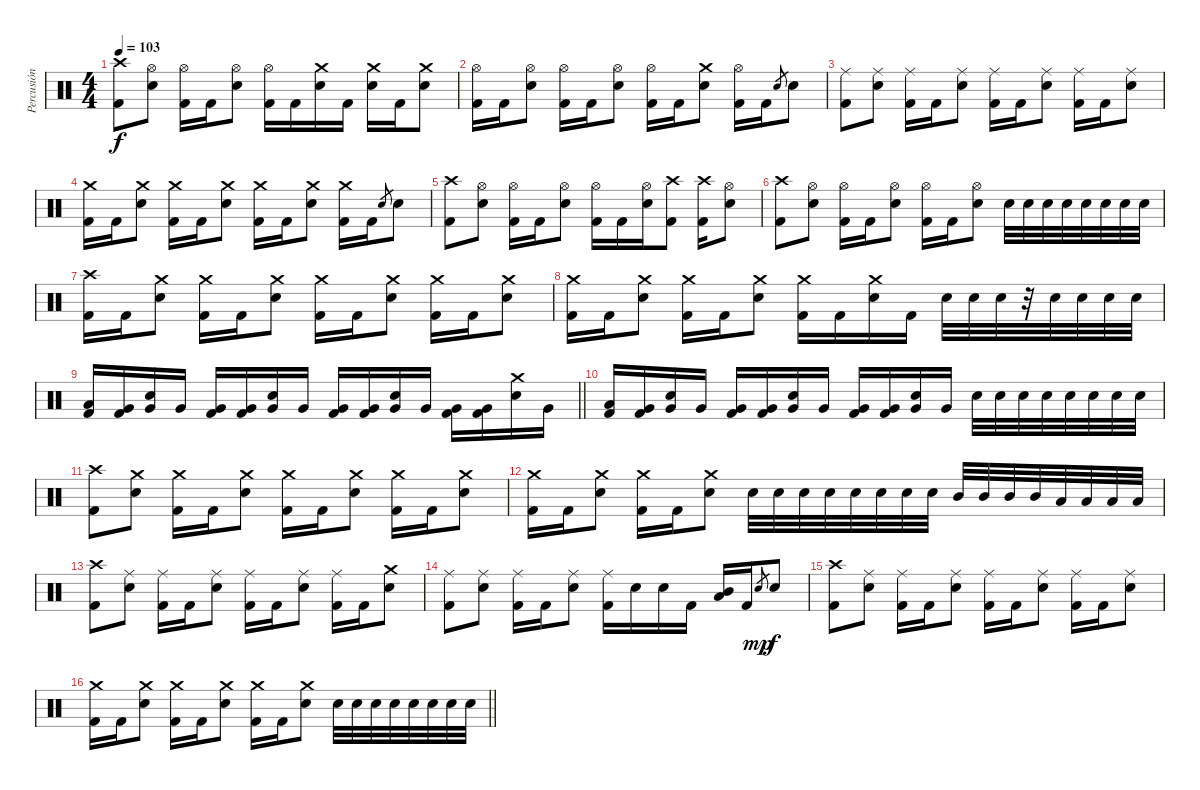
\track ("Percusión" "Percusión") {instrument percussion}
\staff {score}
\articulation defaults
\ts (4 4)
\tempo 103
\clef neutral
\ks c
("Crash high (hit)" "Kick (hit) 2").8{dy f} ("Hi-Hat (open)" "Snare (hit) 2").8 ("Hi-Hat (open)" "Kick (hit) 2").16 "Kick (hit) 2".16 ("Hi-Hat (open)" "Snare (hit) 2").8 ("Hi-Hat (open)" "Kick (hit) 2").16 "Kick (hit) 2".16 ("Crash medium (hit)" "Snare (hit) 2").16 "Kick (hit) 2".16 ("Crash medium (hit)" "Snare (hit) 2").16 "Kick (hit) 2".16 ("Crash medium (hit)" "Snare (hit) 2").8 |
("Hi-Hat (open)" "Kick (hit) 2").16 "Kick (hit) 2".16 ("Hi-Hat (open)" "Snare (hit) 2").8 ("Hi-Hat (open)" "Kick (hit) 2").16 "Kick (hit) 2".16 ("Hi-Hat (open)" "Snare (hit) 2").8 ("Hi-Hat (open)" "Kick (hit) 2").16 "Kick (hit) 2".16 ("Crash medium (hit)" "Snare (hit) 2").8 ("Hi-Hat (open)" "Kick (hit) 2").16 "Kick (hit) 2".16 "Snare (hit) 2".8{gr} "Snare (hit) 2".8 |
("Ride (middle)" "Kick (hit) 2").8 ("Ride (middle)" "Snare (hit) 2").8 ("Ride (middle)" "Kick (hit) 2").16 "Kick (hit) 2".16 ("Ride (middle)" "Snare (hit) 2").8 ("Ride (middle)" "Kick (hit) 2").16 "Kick (hit) 2".16 ("Ride (middle)" "Snare (hit) 2").8 ("Ride (middle)" "Kick (hit) 2").16 "Kick (hit) 2".16 ("Ride (middle)" "Snare (hit) 2").8 |
("Crash medium (hit)" "Kick (hit) 2").16 "Kick (hit) 2".16 ("Crash medium (hit)" "Snare (hit) 2").8 ("Crash medium (hit)" "Kick (hit) 2").16 "Kick (hit) 2".16 ("Crash medium (hit)" "Snare (hit) 2").8 ("Crash medium (hit)" "Kick (hit) 2").16 "Kick (hit) 2".16 ("Crash medium (hit)" "Snare (hit) 2").8 ("Crash medium (hit)" "Kick (hit) 2").16 "Kick (hit) 2".16 "Snare (hit) 2".8{gr} "Snare (hit) 2".8 |
("Crash high (hit)" "Kick (hit) 2").8 ("Hi-Hat (open)" "Snare (hit) 2").8 ("Hi-Hat (open)" "Kick (hit) 2").16 "Kick (hit) 2".16 ("Hi-Hat (open)" "Snare (hit) 2").8 ("Hi-Hat (open)" "Kick (hit) 2").16 "Kick (hit) 2".16 ("Hi-Hat (open)" "Snare (hit) 2").16 ("Crash high (hit)" "Kick (hit) 2").8 ("Crash high (hit)" "Kick (hit) 2").16 ("Hi-Hat (open)" "Snare (hit) 2").8 |
("Crash high (hit)" "Kick (hit) 2").8 ("Hi-Hat (open)" "Snare (hit) 2").8 ("Hi-Hat (open)" "Kick (hit) 2").16 "Kick (hit) 2".16 ("Hi-Hat (open)" "Snare (hit) 2").8 ("Hi-Hat (open)" "Kick (hit) 2").16 "Kick (hit) 2".16 ("Hi-Hat (open)" "Snare (hit) 2").8 "Snare (hit) 2".32 "Snare (hit) 2".32 "Snare (hit) 2".32 "Snare (hit) 2".32 "Snare (hit) 2".32 "Snare (hit) 2".32 "Snare (hit) 2".32 "Snare (hit) 2".32 |
("Crash high (hit)" "Kick (hit) 2").16 "Kick (hit) 2".16 ("Crash medium (hit)" "Snare (hit) 2").8 ("Crash medium (hit)" "Kick (hit) 2").16 "Kick (hit) 2".16 ("Crash medium (hit)" "Snare (hit) 2").8 ("Crash medium (hit)" "Kick (hit) 2").16 "Kick (hit) 2".16 ("Crash medium (hit)" "Snare (hit) 2").8 ("Crash medium (hit)" "Kick (hit) 2").16 "Kick (hit) 2".16 ("Crash medium (hit)" "Snare (hit) 2").8 |
("Crash medium (hit)" "Kick (hit) 2").16 "Kick (hit) 2".16 ("Crash medium (hit)" "Snare (hit) 2").8 ("Crash medium (hit)" "Kick (hit) 2").16 "Kick (hit) 2".16 ("Crash medium (hit)" "Snare (hit) 2").8 ("Crash medium (hit)" "Kick (hit) 2").16 "Kick (hit) 2".16 ("Crash medium (hit)" "Snare (hit) 2").16 "Kick (hit) 2".16 "Snare (hit) 2".32 "Snare (hit) 2".32 "Snare (hit) 2".32 r.32 "Snare (hit) 2".32 "Snare (hit) 2".32 "Snare (hit) 2".32 "Snare (hit) 2".32 |
\barLineRight lightlight
("Low Tom (hit)" "Kick (hit) 2").16 ("Very Low Tom (hit)" "Kick (hit) 2").16 ("Very Low Tom (hit)" "Snare (hit) 2").16 "Very Low Tom (hit)".16 ("Very Low Tom (hit)" "Kick (hit) 2").16 ("Very Low Tom (hit)" "Kick (hit) 2").16 ("Very Low Tom (hit)" "Snare (hit) 2").16 "Very Low Tom (hit)".16 ("Very Low Tom (hit)" "Kick (hit) 2").16 ("Very Low Tom (hit)" "Kick (hit) 2").16 ("Very Low Tom (hit)" "Snare (hit) 2").16 "Very Low Tom (hit)".16 ("Very Low Tom (hit)" "Kick (hit) 2").16 ("Very Low Tom (hit)" "Kick (hit) 2").16 ("Crash medium (hit)" "Snare (hit) 2").16 "Very Low Tom (hit)".16 |
("Low Tom (hit)" "Kick (hit) 2").16 ("Very Low Tom (hit)" "Kick (hit) 2").16 ("Very Low Tom (hit)" "Snare (hit) 2").16 "Very Low Tom (hit)".16 ("Very Low Tom (hit)" "Kick (hit) 2").16 ("Very Low Tom (hit)" "Kick (hit) 2").16 ("Very Low Tom (hit)" "Snare (hit) 2").16 "Very Low Tom (hit)".16 ("Very Low Tom (hit)" "Kick (hit) 2").16 ("Very Low Tom (hit)" "Kick (hit) 2").16 ("Very Low Tom (hit)" "Snare (hit) 2").16 "Very Low Tom (hit)".16 "Snare (hit) 2".32 "Snare (hit) 2".32 "Snare (hit) 2".32 "Snare (hit) 2".32 "Snare (hit) 2".32 "Snare (hit) 2".32 "Snare (hit) 2".32 "Snare (hit) 2".32 |
("Crash high (hit)" "Kick (hit) 2").8 ("Crash medium (hit)" "Snare (hit) 2").8 ("Crash medium (hit)" "Kick (hit) 2").16 "Kick (hit) 2".16 ("Crash medium (hit)" "Snare (hit) 2").8 ("Crash medium (hit)" "Kick (hit) 2").16 "Kick (hit) 2".16 ("Crash medium (hit)" "Snare (hit) 2").8 ("Crash medium (hit)" "Kick (hit) 2").16 "Kick (hit) 2".16 ("Crash medium (hit)" "Snare (hit) 2").8 |
("Crash medium (hit)" "Kick (hit) 2").16 "Kick (hit) 2".16 ("Crash medium (hit)" "Snare (hit) 2").8 ("Crash medium (hit)" "Kick (hit) 2").16 "Kick (hit) 2".16 ("Crash medium (hit)" "Snare (hit) 2").8 "Snare (hit) 2".32 "Snare (hit) 2".32 "Snare (hit) 2".32 "Snare (hit) 2".32 "Snare (hit) 2".32 "Snare (hit) 2".32 "Snare (hit) 2".32 "Snare (hit) 2".32 "Mid Tom (hit)".32 "Mid Tom (hit)".32 "Mid Tom (hit)".32 "Mid Tom (hit)".32 "Low Tom (hit)".32 "Low Tom (hit)".32 "Low Tom (hit)".32 "Low Tom (hit)".32 |
("Crash high (hit)" "Kick (hit) 2").8 ("Ride (middle)" "Snare (hit) 2").8 ("Ride (middle)" "Kick (hit) 2").16 "Kick (hit) 2".16 ("Ride (middle)" "Snare (hit) 2").8 ("Ride (middle)" "Kick (hit) 2").16 "Kick (hit) 2".16 ("Ride (middle)" "Snare (hit) 2").8 ("Ride (middle)" "Kick (hit) 2").16 "Kick (hit) 2".16 ("Crash medium (hit)" "Snare (hit) 2").8 |
("Ride (middle)" "Kick (hit) 2").8 ("Ride (middle)" "Snare (hit) 2").8 ("Ride (middle)" "Kick (hit) 2").16 "Kick (hit) 2".16 ("Ride (middle)" "Snare (hit) 2").8 ("Ride (middle)" "Kick (hit) 2").16 "Snare (hit) 2".16 "Snare (hit) 2".16 "Kick (hit) 2".16 ("Mid Tom (hit)" "Low Tom (hit)").16 "Kick (hit) 2".16 "Snare (hit) 2".8{gr dy mp} "Snare (hit) 2".8{dy f} |
("Crash high (hit)" "Kick (hit) 2").8 ("Ride (middle)" "Snare (hit) 2").8 ("Ride (middle)" "Kick (hit) 2").16 "Kick (hit) 2".16 ("Ride (middle)" "Snare (hit) 2").8 ("Ride (middle)" "Kick (hit) 2").16 "Kick (hit) 2".16 ("Ride (middle)" "Snare (hit) 2").8 ("Ride (middle)" "Kick (hit) 2").16 "Kick (hit) 2".16 ("Ride (middle)" "Snare (hit) 2").8 |
\barLineRight lightlight
("Crash medium (hit)" "Kick (hit) 2").16 "Kick (hit) 2".16 ("Crash medium (hit)" "Snare (hit) 2").8 ("Crash medium (hit)" "Kick (hit) 2").16 "Kick (hit) 2".16 ("Crash medium (hit)" "Snare (hit) 2").8 ("Crash medium (hit)" "Kick (hit) 2").16 "Kick (hit) 2".16 ("Crash medium (hit)" "Snare (hit) 2").8 "Snare (hit) 2".32 "Snare (hit) 2".32 "Snare (hit) 2".32 "Snare (hit) 2".32 "Snare (hit) 2".32 "Snare (hit) 2".32 "Snare (hit) 2".32 "Snare (hit) 2".32
